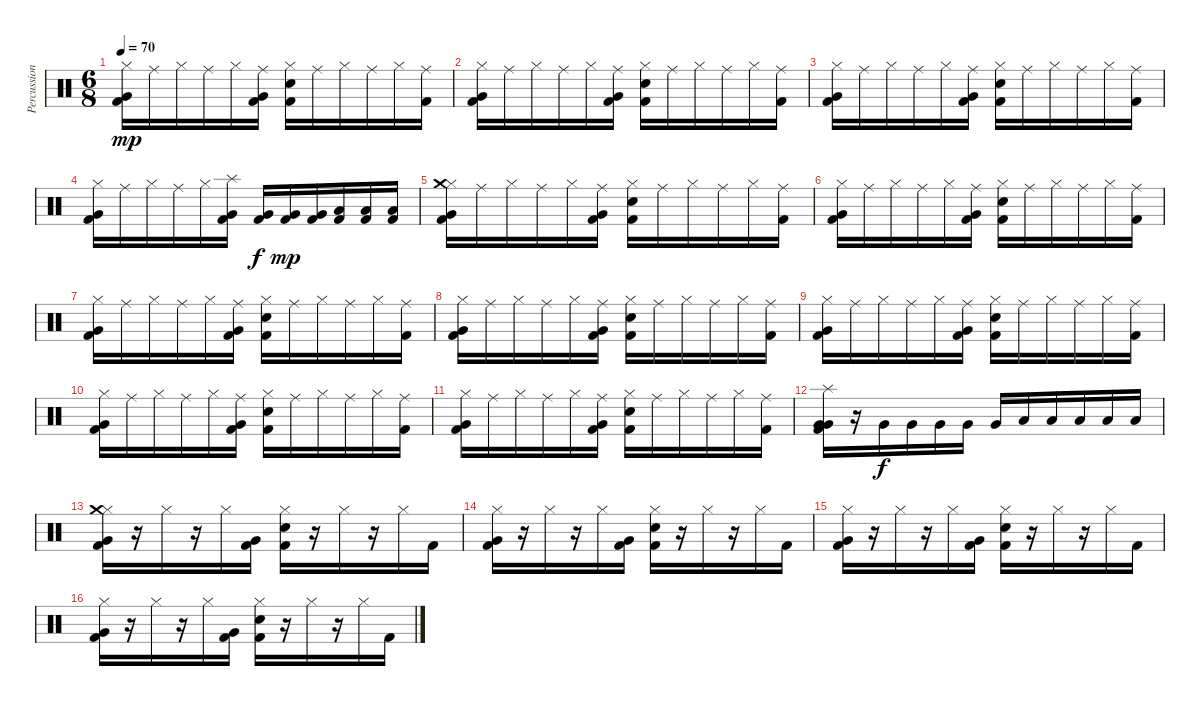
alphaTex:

\track ("Percussion" "Percussion") {instrument percussion}
\staff {score}
\articulation defaults
\ts (6 8)
\tempo 70
\clef neutral
\ks c
("Very Low Tom (hit)" "Hi-Hat (closed)" "Kick (hit) 2").16{dy mp} "Ride (middle)".16 "Hi-Hat (closed)".16 "Ride (middle)".16 "Hi-Hat (closed)".16 ("Ride (middle)" "Kick (hit) 2" "Very Low Tom (hit)").16 ("Hi-Hat (closed)" "Electric Snare (hit)" "Kick (hit) 2").16 "Ride (middle)".16 "Hi-Hat (closed)".16 "Ride (middle)".16 "Hi-Hat (closed)".16 ("Ride (middle)" "Kick (hit) 2").16 |
("Very Low Tom (hit)" "Hi-Hat (closed)" "Kick (hit) 2").16 "Ride (middle)".16 "Hi-Hat (closed)".16 "Ride (middle)".16 "Hi-Hat (closed)".16 ("Ride (middle)" "Kick (hit) 2" "Very Low Tom (hit)").16 ("Hi-Hat (closed)" "Electric Snare (hit)" "Kick (hit) 2").16 "Ride (middle)".16 "Hi-Hat (closed)".16 "Ride (middle)".16 "Hi-Hat (closed)".16 ("Ride (middle)" "Kick (hit) 2").16 |
("Very Low Tom (hit)" "Hi-Hat (closed)" "Kick (hit) 2").16 "Ride (middle)".16 "Hi-Hat (closed)".16 "Ride (middle)".16 "Hi-Hat (closed)".16 ("Ride (middle)" "Kick (hit) 2" "Very Low Tom (hit)").16 ("Hi-Hat (closed)" "Electric Snare (hit)" "Kick (hit) 2").16 "Ride (middle)".16 "Hi-Hat (closed)".16 "Ride (middle)".16 "Hi-Hat (closed)".16 ("Ride (middle)" "Kick (hit) 2").16 |
("Very Low Tom (hit)" "Hi-Hat (closed)" "Kick (hit) 2").16 "Ride (middle)".16 "Hi-Hat (closed)".16 "Ride (middle)".16 "Hi-Hat (closed)".16 ("Kick (hit) 2" "Very Low Tom (hit)" "Splash (hit)").16 ("Very Low Tom (hit)" "Kick (hit) 2").16{dy f} ("Very Low Tom (hit)" "Kick (hit) 2").16{dy mp} ("Very Low Tom (hit)" "Kick (hit) 2").16 ("Low Floor Tom (hit)" "Kick (hit) 2").16 ("Low Floor Tom (hit)" "Kick (hit) 2").16 ("Low Floor Tom (hit)" "Kick (hit) 2").16 |
("Very Low Tom (hit)" "Hi-Hat (closed)" "Crash medium (hit)" "Kick (hit) 2").16 "Ride (middle)".16 "Hi-Hat (closed)".16 "Ride (middle)".16 "Hi-Hat (closed)".16 ("Ride (middle)" "Kick (hit) 2" "Very Low Tom (hit)").16 ("Hi-Hat (closed)" "Electric Snare (hit)" "Kick (hit) 2").16 "Ride (middle)".16 "Hi-Hat (closed)".16 "Ride (middle)".16 "Hi-Hat (closed)".16 ("Ride (middle)" "Kick (hit) 2").16 |
("Very Low Tom (hit)" "Hi-Hat (closed)" "Kick (hit) 2").16 "Ride (middle)".16 "Hi-Hat (closed)".16 "Ride (middle)".16 "Hi-Hat (closed)".16 ("Ride (middle)" "Kick (hit) 2" "Very Low Tom (hit)").16 ("Hi-Hat (closed)" "Electric Snare (hit)" "Kick (hit) 2").16 "Ride (middle)".16 "Hi-Hat (closed)".16 "Ride (middle)".16 "Hi-Hat (closed)".16 ("Ride (middle)" "Kick (hit) 2").16 |
("Very Low Tom (hit)" "Hi-Hat (closed)" "Kick (hit) 2").16 "Ride (middle)".16 "Hi-Hat (closed)".16 "Ride (middle)".16 "Hi-Hat (closed)".16 ("Ride (middle)" "Kick (hit) 2" "Very Low Tom (hit)").16 ("Hi-Hat (closed)" "Electric Snare (hit)" "Kick (hit) 2").16 "Ride (middle)".16 "Hi-Hat (closed)".16 "Ride (middle)".16 "Hi-Hat (closed)".16 ("Ride (middle)" "Kick (hit) 2").16 |
("Very Low Tom (hit)" "Hi-Hat (closed)" "Kick (hit) 2").16 "Ride (middle)".16 "Hi-Hat (closed)".16 "Ride (middle)".16 "Hi-Hat (closed)".16 ("Ride (middle)" "Kick (hit) 2" "Very Low Tom (hit)").16 ("Hi-Hat (closed)" "Electric Snare (hit)" "Kick (hit) 2").16 "Ride (middle)".16 "Hi-Hat (closed)".16 "Ride (middle)".16 "Hi-Hat (closed)".16 ("Ride (middle)" "Kick (hit) 2").16 |
("Very Low Tom (hit)" "Hi-Hat (closed)" "Kick (hit) 2").16 "Ride (middle)".16 "Hi-Hat (closed)".16 "Ride (middle)".16 "Hi-Hat (closed)".16 ("Ride (middle)" "Kick (hit) 2" "Very Low Tom (hit)").16 ("Hi-Hat (closed)" "Electric Snare (hit)" "Kick (hit) 2").16 "Ride (middle)".16 "Hi-Hat (closed)".16 "Ride (middle)".16 "Hi-Hat (closed)".16 ("Ride (middle)" "Kick (hit) 2").16 |
("Very Low Tom (hit)" "Hi-Hat (closed)" "Kick (hit) 2").16 "Ride (middle)".16 "Hi-Hat (closed)".16 "Ride (middle)".16 "Hi-Hat (closed)".16 ("Ride (middle)" "Kick (hit) 2" "Very Low Tom (hit)").16 ("Hi-Hat (closed)" "Electric Snare (hit)" "Kick (hit) 2").16 "Ride (middle)".16 "Hi-Hat (closed)".16 "Ride (middle)".16 "Hi-Hat (closed)".16 ("Ride (middle)" "Kick (hit) 2").16 |
("Very Low Tom (hit)" "Hi-Hat (closed)" "Kick (hit) 2").16 "Ride (middle)".16 "Hi-Hat (closed)".16 "Ride (middle)".16 "Hi-Hat (closed)".16 ("Ride (middle)" "Kick (hit) 2" "Very Low Tom (hit)").16 ("Hi-Hat (closed)" "Electric Snare (hit)" "Kick (hit) 2").16 "Ride (middle)".16 "Hi-Hat (closed)".16 "Ride (middle)".16 "Hi-Hat (closed)".16 ("Ride (middle)" "Kick (hit) 2").16 |
("Very Low Tom (hit)" "Very Low Tom (hit)" "Splash (hit)" "Kick (hit) 2").16 r.16 "Very Low Tom (hit)".16{dy f} "Very Low Tom (hit)".16 "Very Low Tom (hit)".16 "Very Low Tom (hit)".16 "Very Low Tom (hit)".16 "Low Floor Tom (hit)".16 "Low Floor Tom (hit)".16 "Low Floor Tom (hit)".16 "Low Floor Tom (hit)".16 "Low Floor Tom (hit)".16 |
("Very Low Tom (hit)" "Hi-Hat (closed)" "Crash medium (hit)" "Kick (hit) 2").16 r.16 "Hi-Hat (closed)".16 r.16 "Hi-Hat (closed)".16 ("Kick (hit) 2" "Very Low Tom (hit)").16 ("Hi-Hat (closed)" "Electric Snare (hit)" "Kick (hit) 2").16 r.16 "Hi-Hat (closed)".16 r.16 "Hi-Hat (closed)".16 "Kick (hit) 2".16 |
("Very Low Tom (hit)" "Hi-Hat (closed)" "Kick (hit) 2").16 r.16 "Hi-Hat (closed)".16 r.16 "Hi-Hat (closed)".16 ("Kick (hit) 2" "Very Low Tom (hit)").16 ("Hi-Hat (closed)" "Electric Snare (hit)" "Kick (hit) 2").16 r.16 "Hi-Hat (closed)".16 r.16 "Hi-Hat (closed)".16 "Kick (hit) 2".16 |
("Very Low Tom (hit)" "Hi-Hat (closed)" "Kick (hit) 2").16 r.16 "Hi-Hat (closed)".16 r.16 "Hi-Hat (closed)".16 ("Kick (hit) 2" "Very Low Tom (hit)").16 ("Hi-Hat (closed)" "Electric Snare (hit)" "Kick (hit) 2").16 r.16 "Hi-Hat (closed)".16 r.16 "Hi-Hat (closed)".16 "Kick (hit) 2".16 |
("Very Low Tom (hit)" "Hi-Hat (closed)" "Kick (hit) 2").16 r.16 "Hi-Hat (closed)".16 r.16 "Hi-Hat (closed)".16 ("Kick (hit) 2" "Very Low Tom (hit)").16 ("Hi-Hat (closed)" "Electric Snare (hit)" "Kick (hit) 2").16 r.16 "Hi-Hat (closed)".16 r.16 "Hi-Hat (closed)".16 "Kick (hit) 2".16
